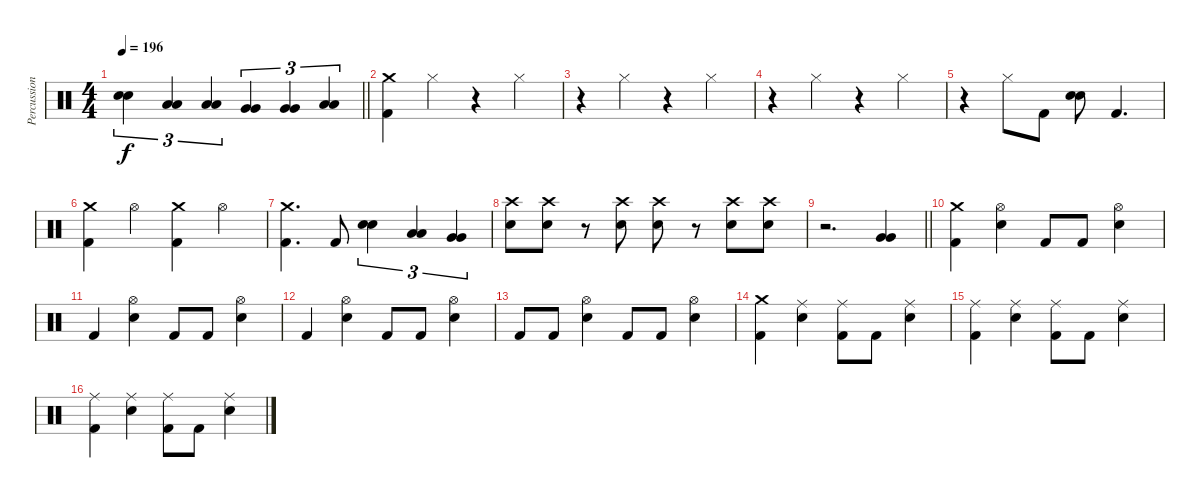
\track ("Percussion" "Percussion") {instrument percussion}
\staff {score}
\articulation defaults
\ts (4 4)
\tempo 196
\clef neutral
\barLineRight lightlight
\ks c
("Electric Snare (hit)" "Electric Snare (hit)").4{tu (3 2) dy f} ("Low Tom (hit)" "Low Tom (hit)").4{tu (3 2)} ("Low Tom (hit)" "Low Tom (hit)").4{tu (3 2)} ("Very Low Tom (hit)" "Very Low Tom (hit)").4{tu (3 2)} ("Very Low Tom (hit)" "Very Low Tom (hit)").4{tu (3 2)} ("Low Floor Tom (hit)" "Low Floor Tom (hit)").4{tu (3 2)} |
("Crash medium (hit)" "Kick (hit) 2").4 "Hi-Hat (closed)".4 r.4 "Hi-Hat (closed)".4 |
r.4 "Hi-Hat (closed)".4 r.4 "Hi-Hat (closed)".4 |
r.4 "Hi-Hat (closed)".4 r.4 "Hi-Hat (closed)".4 |
r.4 "Hi-Hat (closed)".8 "Kick (hit) 2".8 ("Electric Snare (hit)" "Electric Snare (hit)").8 "Kick (hit) 2".4{d} |
("Crash medium (hit)" "Kick (hit) 2").4 "Hi-Hat (open)".4 ("Crash medium (hit)" "Kick (hit) 2").4 "Hi-Hat (open)".4 |
("Crash medium (hit)" "Kick (hit) 2").4{d} "Kick (hit) 2".8 ("Electric Snare (hit)" "Electric Snare (hit)").4{tu (3 2)} ("Low Tom (hit)" "Low Tom (hit)").4{tu (3 2)} ("Very Low Tom (hit)" "Very Low Tom (hit)").4{tu (3 2)} |
("Crash high (hit)" "Electric Snare (hit)").8 ("Crash high (hit)" "Electric Snare (hit)").8 r.8 ("Crash high (hit)" "Electric Snare (hit)").8 ("Crash high (hit)" "Electric Snare (hit)").8 r.8 ("Crash high (hit)" "Electric Snare (hit)").8 ("Crash high (hit)" "Electric Snare (hit)").8 |
\barLineRight lightlight
r.2{d} ("Very Low Tom (hit)" "Very Low Tom (hit)").4 |
("Crash medium (hit)" "Kick (hit) 2").4 ("Hi-Hat (open)" "Electric Snare (hit)").4 "Kick (hit) 2".8 "Kick (hit) 2".8 ("Hi-Hat (open)" "Electric Snare (hit)").4 |
"Kick (hit) 2".4 ("Hi-Hat (open)" "Electric Snare (hit)").4 "Kick (hit) 2".8 "Kick (hit) 2".8 ("Hi-Hat (open)" "Electric Snare (hit)").4 |
"Kick (hit) 2".4 ("Hi-Hat (open)" "Electric Snare (hit)").4 "Kick (hit) 2".8 "Kick (hit) 2".8 ("Hi-Hat (open)" "Electric Snare (hit)").4 |
"Kick (hit) 2".8 "Kick (hit) 2".8 ("Hi-Hat (open)" "Electric Snare (hit)").4 "Kick (hit) 2".8 "Kick (hit) 2".8 ("Hi-Hat (open)" "Electric Snare (hit)").4 |
("Crash medium (hit)" "Kick (hit) 2").4 ("Ride (middle)" "Electric Snare (hit)").4 ("Ride (middle)" "Kick (hit) 2").8 "Kick (hit) 2".8 ("Ride (middle)" "Electric Snare (hit)").4 |
("Ride (middle)" "Kick (hit) 2").4 ("Ride (middle)" "Electric Snare (hit)").4 ("Ride (middle)" "Kick (hit) 2").8 "Kick (hit) 2".8 ("Ride (middle)" "Electric Snare (hit)").4 |
("Ride (middle)" "Kick (hit) 2").4 ("Ride (middle)" "Electric Snare (hit)").4 ("Ride (middle)" "Kick (hit) 2").8 "Kick (hit) 2".8 ("Ride (middle)" "Electric Snare (hit)").4
